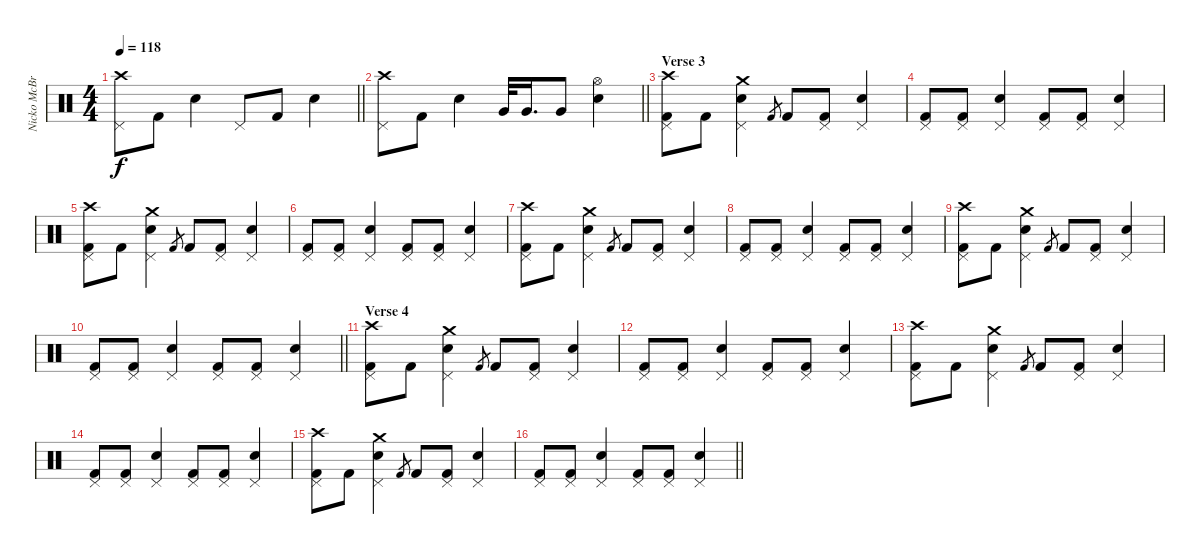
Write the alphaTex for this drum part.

\track ("Nicko McBrain" "Nicko McBr") {instrument percussion}
\staff {score}
\articulation defaults
\ts (4 4)
\tempo 118
\clef neutral
\barLineRight lightlight
\ks c
("Crash high (hit)" "Pedal Hi-Hat (hit)").8{dy f} "Kick (hit) 2".8 "Electric Snare (hit)".4 "Pedal Hi-Hat (hit)".8 "Kick (hit) 2".8 "Electric Snare (hit)".4 |
\barLineRight lightlight
("Crash high (hit)" "Pedal Hi-Hat (hit)").8 "Kick (hit) 2".8 "Electric Snare (hit)".4 "Very Low Tom (hit)".32 "Very Low Tom (hit)".16{d} "Very Low Tom (hit)".8 ("Hi-Hat (open)" "Electric Snare (hit)").4 |
\section ("" "Verse 3")
("Crash high (hit)" "Pedal Hi-Hat (hit)" "Kick (hit) 2").8 "Kick (hit) 2".8 ("Pedal Hi-Hat (hit)" "Electric Snare (hit)" "Crash medium (hit)").4 "Kick (hit) 2".8{gr} "Kick (hit) 2".8 ("Pedal Hi-Hat (hit)" "Kick (hit) 2").8 ("Pedal Hi-Hat (hit)" "Electric Snare (hit)").4 |
("Pedal Hi-Hat (hit)" "Kick (hit) 2").8 ("Pedal Hi-Hat (hit)" "Kick (hit) 2").8 ("Pedal Hi-Hat (hit)" "Electric Snare (hit)").4 ("Pedal Hi-Hat (hit)" "Kick (hit) 2").8 ("Pedal Hi-Hat (hit)" "Kick (hit) 2").8 ("Pedal Hi-Hat (hit)" "Electric Snare (hit)").4 |
("Crash high (hit)" "Pedal Hi-Hat (hit)" "Kick (hit) 2").8 "Kick (hit) 2".8 ("Pedal Hi-Hat (hit)" "Electric Snare (hit)" "Crash medium (hit)").4 "Kick (hit) 2".8{gr} "Kick (hit) 2".8 ("Pedal Hi-Hat (hit)" "Kick (hit) 2").8 ("Pedal Hi-Hat (hit)" "Electric Snare (hit)").4 |
("Pedal Hi-Hat (hit)" "Kick (hit) 2").8 ("Pedal Hi-Hat (hit)" "Kick (hit) 2").8 ("Pedal Hi-Hat (hit)" "Electric Snare (hit)").4 ("Pedal Hi-Hat (hit)" "Kick (hit) 2").8 ("Pedal Hi-Hat (hit)" "Kick (hit) 2").8 ("Pedal Hi-Hat (hit)" "Electric Snare (hit)").4 |
("Crash high (hit)" "Pedal Hi-Hat (hit)" "Kick (hit) 2").8 "Kick (hit) 2".8 ("Pedal Hi-Hat (hit)" "Electric Snare (hit)" "Crash medium (hit)").4 "Kick (hit) 2".8{gr} "Kick (hit) 2".8 ("Pedal Hi-Hat (hit)" "Kick (hit) 2").8 ("Pedal Hi-Hat (hit)" "Electric Snare (hit)").4 |
("Pedal Hi-Hat (hit)" "Kick (hit) 2").8 ("Pedal Hi-Hat (hit)" "Kick (hit) 2").8 ("Pedal Hi-Hat (hit)" "Electric Snare (hit)").4 ("Pedal Hi-Hat (hit)" "Kick (hit) 2").8 ("Pedal Hi-Hat (hit)" "Kick (hit) 2").8 ("Pedal Hi-Hat (hit)" "Electric Snare (hit)").4 |
("Crash high (hit)" "Pedal Hi-Hat (hit)" "Kick (hit) 2").8 "Kick (hit) 2".8 ("Pedal Hi-Hat (hit)" "Electric Snare (hit)" "Crash medium (hit)").4 "Kick (hit) 2".8{gr} "Kick (hit) 2".8 ("Pedal Hi-Hat (hit)" "Kick (hit) 2").8 ("Pedal Hi-Hat (hit)" "Electric Snare (hit)").4 |
\barLineRight lightlight
("Pedal Hi-Hat (hit)" "Kick (hit) 2").8 ("Pedal Hi-Hat (hit)" "Kick (hit) 2").8 ("Pedal Hi-Hat (hit)" "Electric Snare (hit)").4 ("Pedal Hi-Hat (hit)" "Kick (hit) 2").8 ("Pedal Hi-Hat (hit)" "Kick (hit) 2").8 ("Pedal Hi-Hat (hit)" "Electric Snare (hit)").4 |
\section ("" "Verse 4")
("Crash high (hit)" "Pedal Hi-Hat (hit)" "Kick (hit) 2").8 "Kick (hit) 2".8 ("Pedal Hi-Hat (hit)" "Electric Snare (hit)" "Crash medium (hit)").4 "Kick (hit) 2".8{gr} "Kick (hit) 2".8 ("Pedal Hi-Hat (hit)" "Kick (hit) 2").8 ("Pedal Hi-Hat (hit)" "Electric Snare (hit)").4 |
("Pedal Hi-Hat (hit)" "Kick (hit) 2").8 ("Pedal Hi-Hat (hit)" "Kick (hit) 2").8 ("Pedal Hi-Hat (hit)" "Electric Snare (hit)").4 ("Pedal Hi-Hat (hit)" "Kick (hit) 2").8 ("Pedal Hi-Hat (hit)" "Kick (hit) 2").8 ("Pedal Hi-Hat (hit)" "Electric Snare (hit)").4 |
("Crash high (hit)" "Pedal Hi-Hat (hit)" "Kick (hit) 2").8 "Kick (hit) 2".8 ("Pedal Hi-Hat (hit)" "Electric Snare (hit)" "Crash medium (hit)").4 "Kick (hit) 2".8{gr} "Kick (hit) 2".8 ("Pedal Hi-Hat (hit)" "Kick (hit) 2").8 ("Pedal Hi-Hat (hit)" "Electric Snare (hit)").4 |
("Pedal Hi-Hat (hit)" "Kick (hit) 2").8 ("Pedal Hi-Hat (hit)" "Kick (hit) 2").8 ("Pedal Hi-Hat (hit)" "Electric Snare (hit)").4 ("Pedal Hi-Hat (hit)" "Kick (hit) 2").8 ("Pedal Hi-Hat (hit)" "Kick (hit) 2").8 ("Pedal Hi-Hat (hit)" "Electric Snare (hit)").4 |
("Crash high (hit)" "Pedal Hi-Hat (hit)" "Kick (hit) 2").8 "Kick (hit) 2".8 ("Pedal Hi-Hat (hit)" "Electric Snare (hit)" "Crash medium (hit)").4 "Kick (hit) 2".8{gr} "Kick (hit) 2".8 ("Pedal Hi-Hat (hit)" "Kick (hit) 2").8 ("Pedal Hi-Hat (hit)" "Electric Snare (hit)").4 |
\barLineRight lightlight
("Pedal Hi-Hat (hit)" "Kick (hit) 2").8 ("Pedal Hi-Hat (hit)" "Kick (hit) 2").8 ("Pedal Hi-Hat (hit)" "Electric Snare (hit)").4 ("Pedal Hi-Hat (hit)" "Kick (hit) 2").8 ("Pedal Hi-Hat (hit)" "Kick (hit) 2").8 ("Pedal Hi-Hat (hit)" "Electric Snare (hit)").4
